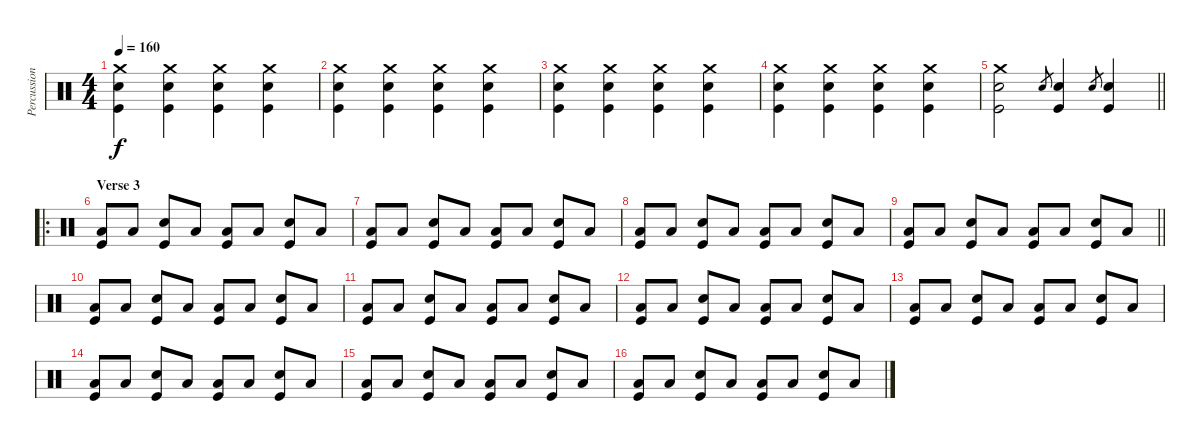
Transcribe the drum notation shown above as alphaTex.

\track ("Percussion" "Percussion") {instrument percussion}
\staff {score}
\articulation defaults
\ts (4 4)
\tempo 160
\clef neutral
\ks c
("Crash medium (hit)" "Snare (hit) 2" "Kick (hit)").4{dy f} ("Crash medium (hit)" "Snare (hit) 2" "Kick (hit)").4 ("Crash medium (hit)" "Snare (hit) 2" "Kick (hit)").4 ("Crash medium (hit)" "Snare (hit) 2" "Kick (hit)").4 |
("Crash medium (hit)" "Snare (hit) 2" "Kick (hit)").4 ("Crash medium (hit)" "Snare (hit) 2" "Kick (hit)").4 ("Crash medium (hit)" "Snare (hit) 2" "Kick (hit)").4 ("Crash medium (hit)" "Snare (hit) 2" "Kick (hit)").4 |
("Crash medium (hit)" "Snare (hit) 2" "Kick (hit)").4 ("Crash medium (hit)" "Snare (hit) 2" "Kick (hit)").4 ("Crash medium (hit)" "Snare (hit) 2" "Kick (hit)").4 ("Crash medium (hit)" "Snare (hit) 2" "Kick (hit)").4 |
("Crash medium (hit)" "Snare (hit) 2" "Kick (hit)").4 ("Crash medium (hit)" "Snare (hit) 2" "Kick (hit)").4 ("Crash medium (hit)" "Snare (hit) 2" "Kick (hit)").4 ("Crash medium (hit)" "Snare (hit) 2" "Kick (hit)").4 |
\barLineRight lightlight
("Crash medium (hit)" "Snare (hit) 2" "Kick (hit)").2 "Snare (hit) 2".8{gr} ("Snare (hit) 2" "Kick (hit)").4 "Snare (hit) 2".8{gr} ("Snare (hit) 2" "Kick (hit)").4 |
\ro
\section ("" "Verse 3")
("Low Floor Tom (hit)" "Kick (hit)").8 "Low Floor Tom (hit)".8 ("Snare (hit) 2" "Kick (hit)").8 "Low Floor Tom (hit)".8 ("Low Floor Tom (hit)" "Kick (hit)").8 "Low Floor Tom (hit)".8 ("Snare (hit) 2" "Kick (hit)").8 "Low Floor Tom (hit)".8 |
("Low Floor Tom (hit)" "Kick (hit)").8 "Low Floor Tom (hit)".8 ("Snare (hit) 2" "Kick (hit)").8 "Low Floor Tom (hit)".8 ("Low Floor Tom (hit)" "Kick (hit)").8 "Low Floor Tom (hit)".8 ("Snare (hit) 2" "Kick (hit)").8 "Low Floor Tom (hit)".8 |
("Low Floor Tom (hit)" "Kick (hit)").8 "Low Floor Tom (hit)".8 ("Snare (hit) 2" "Kick (hit)").8 "Low Floor Tom (hit)".8 ("Low Floor Tom (hit)" "Kick (hit)").8 "Low Floor Tom (hit)".8 ("Snare (hit) 2" "Kick (hit)").8 "Low Floor Tom (hit)".8 |
\barLineRight lightlight
("Low Floor Tom (hit)" "Kick (hit)").8 "Low Floor Tom (hit)".8 ("Snare (hit) 2" "Kick (hit)").8 "Low Floor Tom (hit)".8 ("Low Floor Tom (hit)" "Kick (hit)").8 "Low Floor Tom (hit)".8 ("Snare (hit) 2" "Kick (hit)").8 "Low Floor Tom (hit)".8 |
("Low Floor Tom (hit)" "Kick (hit)").8 "Low Floor Tom (hit)".8 ("Snare (hit) 2" "Kick (hit)").8 "Low Floor Tom (hit)".8 ("Low Floor Tom (hit)" "Kick (hit)").8 "Low Floor Tom (hit)".8 ("Snare (hit) 2" "Kick (hit)").8 "Low Floor Tom (hit)".8 |
("Low Floor Tom (hit)" "Kick (hit)").8 "Low Floor Tom (hit)".8 ("Snare (hit) 2" "Kick (hit)").8 "Low Floor Tom (hit)".8 ("Low Floor Tom (hit)" "Kick (hit)").8 "Low Floor Tom (hit)".8 ("Snare (hit) 2" "Kick (hit)").8 "Low Floor Tom (hit)".8 |
("Low Floor Tom (hit)" "Kick (hit)").8 "Low Floor Tom (hit)".8 ("Snare (hit) 2" "Kick (hit)").8 "Low Floor Tom (hit)".8 ("Low Floor Tom (hit)" "Kick (hit)").8 "Low Floor Tom (hit)".8 ("Snare (hit) 2" "Kick (hit)").8 "Low Floor Tom (hit)".8 |
("Low Floor Tom (hit)" "Kick (hit)").8 "Low Floor Tom (hit)".8 ("Snare (hit) 2" "Kick (hit)").8 "Low Floor Tom (hit)".8 ("Low Floor Tom (hit)" "Kick (hit)").8 "Low Floor Tom (hit)".8 ("Snare (hit) 2" "Kick (hit)").8 "Low Floor Tom (hit)".8 |
("Low Floor Tom (hit)" "Kick (hit)").8 "Low Floor Tom (hit)".8 ("Snare (hit) 2" "Kick (hit)").8 "Low Floor Tom (hit)".8 ("Low Floor Tom (hit)" "Kick (hit)").8 "Low Floor Tom (hit)".8 ("Snare (hit) 2" "Kick (hit)").8 "Low Floor Tom (hit)".8 |
("Low Floor Tom (hit)" "Kick (hit)").8 "Low Floor Tom (hit)".8 ("Snare (hit) 2" "Kick (hit)").8 "Low Floor Tom (hit)".8 ("Low Floor Tom (hit)" "Kick (hit)").8 "Low Floor Tom (hit)".8 ("Snare (hit) 2" "Kick (hit)").8 "Low Floor Tom (hit)".8 |
("Low Floor Tom (hit)" "Kick (hit)").8 "Low Floor Tom (hit)".8 ("Snare (hit) 2" "Kick (hit)").8 "Low Floor Tom (hit)".8 ("Low Floor Tom (hit)" "Kick (hit)").8 "Low Floor Tom (hit)".8 ("Snare (hit) 2" "Kick (hit)").8 "Low Floor Tom (hit)".8
